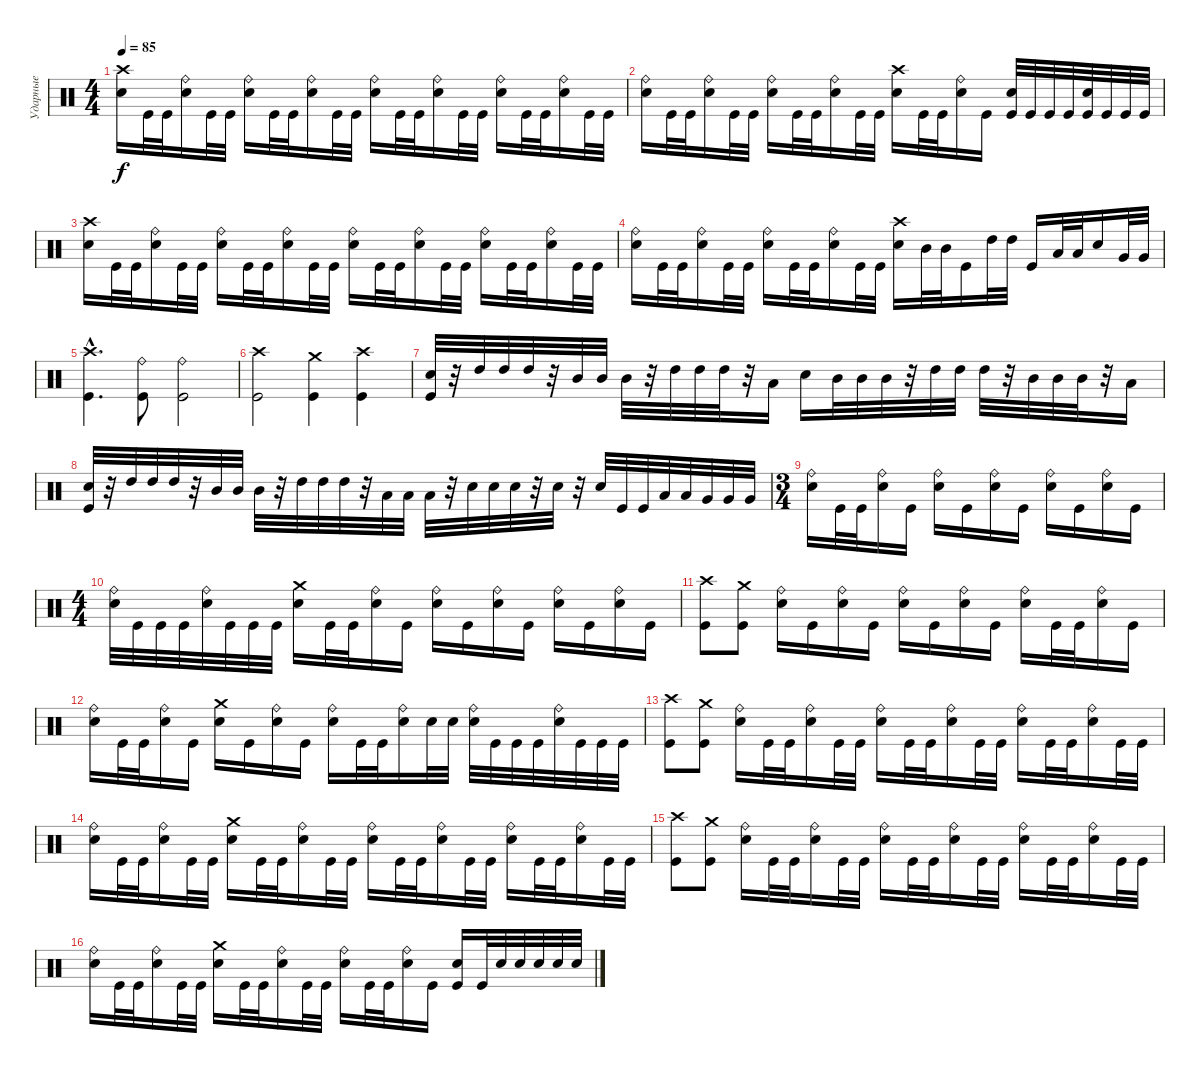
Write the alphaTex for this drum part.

\track ("Ударные" "Ударные") {instrument percussion}
\staff {score}
\articulation defaults
\ts (4 4)
\tempo 85
\clef neutral
\ks c
("Crash high (hit)" "Electric Snare (hit)").16{dy f} "Kick (hit)".32 "Kick (hit)".32 ("Ride (bell)" "Electric Snare (hit)").16 "Kick (hit)".32 "Kick (hit)".32 ("Ride (bell)" "Electric Snare (hit)").16 "Kick (hit)".32 "Kick (hit)".32 ("Ride (bell)" "Electric Snare (hit)").16 "Kick (hit)".32 "Kick (hit)".32 ("Ride (bell)" "Electric Snare (hit)").16 "Kick (hit)".32 "Kick (hit)".32 ("Ride (bell)" "Electric Snare (hit)").16 "Kick (hit)".32 "Kick (hit)".32 ("Ride (bell)" "Electric Snare (hit)").16 "Kick (hit)".32 "Kick (hit)".32 ("Ride (bell)" "Electric Snare (hit)").16 "Kick (hit)".32 "Kick (hit)".32 |
("Ride (bell)" "Electric Snare (hit)").16 "Kick (hit)".32 "Kick (hit)".32 ("Ride (bell)" "Electric Snare (hit)").16 "Kick (hit)".32 "Kick (hit)".32 ("Ride (bell)" "Electric Snare (hit)").16 "Kick (hit)".32 "Kick (hit)".32 ("Ride (bell)" "Electric Snare (hit)").16 "Kick (hit)".32 "Kick (hit)".32 ("Crash high (hit)" "Electric Snare (hit)").16 "Kick (hit)".32 "Kick (hit)".32 ("Ride (bell)" "Electric Snare (hit)").16 "Kick (hit)".16 ("Electric Snare (hit)" "Kick (hit)").32 "Kick (hit)".32 "Kick (hit)".32 "Kick (hit)".32 ("Electric Snare (hit)" "Kick (hit)").32 "Kick (hit)".32 "Kick (hit)".32 "Kick (hit)".32 |
("Crash high (hit)" "Electric Snare (hit)").16 "Kick (hit)".32 "Kick (hit)".32 ("Ride (bell)" "Electric Snare (hit)").16 "Kick (hit)".32 "Kick (hit)".32 ("Ride (bell)" "Electric Snare (hit)").16 "Kick (hit)".32 "Kick (hit)".32 ("Ride (bell)" "Electric Snare (hit)").16 "Kick (hit)".32 "Kick (hit)".32 ("Ride (bell)" "Electric Snare (hit)").16 "Kick (hit)".32 "Kick (hit)".32 ("Ride (bell)" "Electric Snare (hit)").16 "Kick (hit)".32 "Kick (hit)".32 ("Ride (bell)" "Electric Snare (hit)").16 "Kick (hit)".32 "Kick (hit)".32 ("Ride (bell)" "Electric Snare (hit)").16 "Kick (hit)".32 "Kick (hit)".32 |
("Ride (bell)" "Electric Snare (hit)").16 "Kick (hit)".32 "Kick (hit)".32 ("Ride (bell)" "Electric Snare (hit)").16 "Kick (hit)".32 "Kick (hit)".32 ("Ride (bell)" "Electric Snare (hit)").16 "Kick (hit)".32 "Kick (hit)".32 ("Ride (bell)" "Electric Snare (hit)").16 "Kick (hit)".32 "Kick (hit)".32 ("Crash high (hit)" "Electric Snare (hit)").16 "Mid Tom (hit)".32 "Mid Tom (hit)".32 "Kick (hit)".16 "High Tom (hit)".32 "High Tom (hit)".32 "Kick (hit)".16 "Low Tom (hit)".32 "Low Tom (hit)".32 "Electric Snare (hit)".16 "Very Low Tom (hit)".32 "Very Low Tom (hit)".32 |
("Crash high (hit)"{hac} "Kick (hit)"{hac}).4{d} ("Ride (bell)" "Kick (hit)").8 ("Ride (bell)" "Kick (hit)").2 |
("Crash high (hit)" "Kick (hit)").2 ("Crash medium (hit)" "Kick (hit)").4 ("Crash high (hit)" "Kick (hit)").4 |
("Electric Snare (hit)" "Kick (hit)").32 r.32 "High Tom (hit)".32 "High Tom (hit)".32 "High Tom (hit)".32 r.32 "Mid Tom (hit)".32 "Mid Tom (hit)".32 "Mid Tom (hit)".32 r.32 "High Tom (hit)".32 "High Tom (hit)".32 "High Tom (hit)".32 r.32 "Low Tom (hit)".16 "Electric Snare (hit)".16 "Mid Tom (hit)".32 "Mid Tom (hit)".32 "Mid Tom (hit)".32 r.32 "High Tom (hit)".32 "High Tom (hit)".32 "High Tom (hit)".32 r.32 "Mid Tom (hit)".32 "Mid Tom (hit)".32 "Mid Tom (hit)".32 r.32 "Low Tom (hit)".16 |
("Electric Snare (hit)" "Kick (hit)").32 r.32 "High Tom (hit)".32 "High Tom (hit)".32 "High Tom (hit)".32 r.32 "Mid Tom (hit)".32 "Mid Tom (hit)".32 "Mid Tom (hit)".32 r.32 "High Tom (hit)".32 "High Tom (hit)".32 "High Tom (hit)".32 r.32 "Low Tom (hit)".32 "Low Tom (hit)".32 "Low Tom (hit)".32 r.32 "Electric Snare (hit)".32 "Electric Snare (hit)".32 "Electric Snare (hit)".32 r.32 "Electric Snare (hit)".32 r.32 "Electric Snare (hit)".32 "Kick (hit)".32 "Kick (hit)".32 "Low Tom (hit)".32 "Low Tom (hit)".32 "Very Low Tom (hit)".32 "Very Low Tom (hit)".32 "Very Low Tom (hit)".32 |
\ts (3 4)
("Ride (bell)" "Electric Snare (hit)").16 "Kick (hit)".32 "Kick (hit)".32 ("Ride (bell)" "Electric Snare (hit)").16 "Kick (hit)".16 ("Ride (bell)" "Electric Snare (hit)").16 "Kick (hit)".16 ("Ride (bell)" "Electric Snare (hit)").16 "Kick (hit)".16 ("Ride (bell)" "Electric Snare (hit)").16 "Kick (hit)".16 ("Ride (bell)" "Electric Snare (hit)").16 "Kick (hit)".16 |
\ts (4 4)
("Ride (bell)" "Electric Snare (hit)").32 "Kick (hit)".32 "Kick (hit)".32 "Kick (hit)".32 ("Ride (bell)" "Electric Snare (hit)").32 "Kick (hit)".32 "Kick (hit)".32 "Kick (hit)".32 ("Crash medium (hit)" "Electric Snare (hit)").16 "Kick (hit)".32 "Kick (hit)".32 ("Ride (bell)" "Electric Snare (hit)").16 "Kick (hit)".16 ("Ride (bell)" "Electric Snare (hit)").16 "Kick (hit)".16 ("Ride (bell)" "Electric Snare (hit)").16 "Kick (hit)".16 ("Ride (bell)" "Electric Snare (hit)").16 "Kick (hit)".16 ("Ride (bell)" "Electric Snare (hit)").16 "Kick (hit)".16 |
("Crash high (hit)" "Kick (hit)").8 ("Crash medium (hit)" "Kick (hit)").8 ("Ride (bell)" "Electric Snare (hit)").16 "Kick (hit)".16 ("Ride (bell)" "Electric Snare (hit)").16 "Kick (hit)".16 ("Ride (bell)" "Electric Snare (hit)").16 "Kick (hit)".16 ("Ride (bell)" "Electric Snare (hit)").16 "Kick (hit)".16 ("Ride (bell)" "Electric Snare (hit)").16 "Kick (hit)".32 "Kick (hit)".32 ("Ride (bell)" "Electric Snare (hit)").16 "Kick (hit)".16 |
("Ride (bell)" "Electric Snare (hit)").16 "Kick (hit)".32 "Kick (hit)".32 ("Ride (bell)" "Electric Snare (hit)").16 "Kick (hit)".16 ("Crash medium (hit)" "Electric Snare (hit)").16 "Kick (hit)".16 ("Ride (bell)" "Electric Snare (hit)").16 "Kick (hit)".16 ("Ride (bell)" "Electric Snare (hit)").16 "Kick (hit)".32 "Kick (hit)".32 ("Ride (bell)" "Electric Snare (hit)").16 "Electric Snare (hit)".32 "Electric Snare (hit)".32 ("Ride (bell)" "Electric Snare (hit)").32 "Kick (hit)".32 "Kick (hit)".32 "Kick (hit)".32 ("Ride (bell)" "Electric Snare (hit)").32 "Kick (hit)".32 "Kick (hit)".32 "Kick (hit)".32 |
("Crash high (hit)" "Kick (hit)").8 ("Crash medium (hit)" "Kick (hit)").8 ("Ride (bell)" "Electric Snare (hit)").16 "Kick (hit)".32 "Kick (hit)".32 ("Ride (bell)" "Electric Snare (hit)").16 "Kick (hit)".32 "Kick (hit)".32 ("Ride (bell)" "Electric Snare (hit)").16 "Kick (hit)".32 "Kick (hit)".32 ("Ride (bell)" "Electric Snare (hit)").16 "Kick (hit)".32 "Kick (hit)".32 ("Ride (bell)" "Electric Snare (hit)").16 "Kick (hit)".32 "Kick (hit)".32 ("Ride (bell)" "Electric Snare (hit)").16 "Kick (hit)".32 "Kick (hit)".32 |
("Ride (bell)" "Electric Snare (hit)").16 "Kick (hit)".32 "Kick (hit)".32 ("Ride (bell)" "Electric Snare (hit)").16 "Kick (hit)".32 "Kick (hit)".32 ("Crash medium (hit)" "Electric Snare (hit)").16 "Kick (hit)".32 "Kick (hit)".32 ("Ride (bell)" "Electric Snare (hit)").16 "Kick (hit)".32 "Kick (hit)".32 ("Ride (bell)" "Electric Snare (hit)").16 "Kick (hit)".32 "Kick (hit)".32 ("Ride (bell)" "Electric Snare (hit)").16 "Kick (hit)".32 "Kick (hit)".32 ("Ride (bell)" "Electric Snare (hit)").16 "Kick (hit)".32 "Kick (hit)".32 ("Ride (bell)" "Electric Snare (hit)").16 "Kick (hit)".32 "Kick (hit)".32 |
("Crash high (hit)" "Kick (hit)").8 ("Crash medium (hit)" "Kick (hit)").8 ("Ride (bell)" "Electric Snare (hit)").16 "Kick (hit)".32 "Kick (hit)".32 ("Ride (bell)" "Electric Snare (hit)").16 "Kick (hit)".32 "Kick (hit)".32 ("Ride (bell)" "Electric Snare (hit)").16 "Kick (hit)".32 "Kick (hit)".32 ("Ride (bell)" "Electric Snare (hit)").16 "Kick (hit)".32 "Kick (hit)".32 ("Ride (bell)" "Electric Snare (hit)").16 "Kick (hit)".32 "Kick (hit)".32 ("Ride (bell)" "Electric Snare (hit)").16 "Kick (hit)".32 "Kick (hit)".32 |
("Ride (bell)" "Electric Snare (hit)").16 "Kick (hit)".32 "Kick (hit)".32 ("Ride (bell)" "Electric Snare (hit)").16 "Kick (hit)".32 "Kick (hit)".32 ("Crash medium (hit)" "Electric Snare (hit)").16 "Kick (hit)".32 "Kick (hit)".32 ("Ride (bell)" "Electric Snare (hit)").16 "Kick (hit)".32 "Kick (hit)".32 ("Ride (bell)" "Electric Snare (hit)").16 "Kick (hit)".32 "Kick (hit)".32 ("Ride (bell)" "Electric Snare (hit)").16 "Kick (hit)".16 ("Electric Snare (hit)" "Kick (hit)").16 "Kick (hit)".32 "Electric Snare (hit)".32 "Electric Snare (hit)".32 "Electric Snare (hit)".32 "Electric Snare (hit)".32 "Electric Snare (hit)".32
